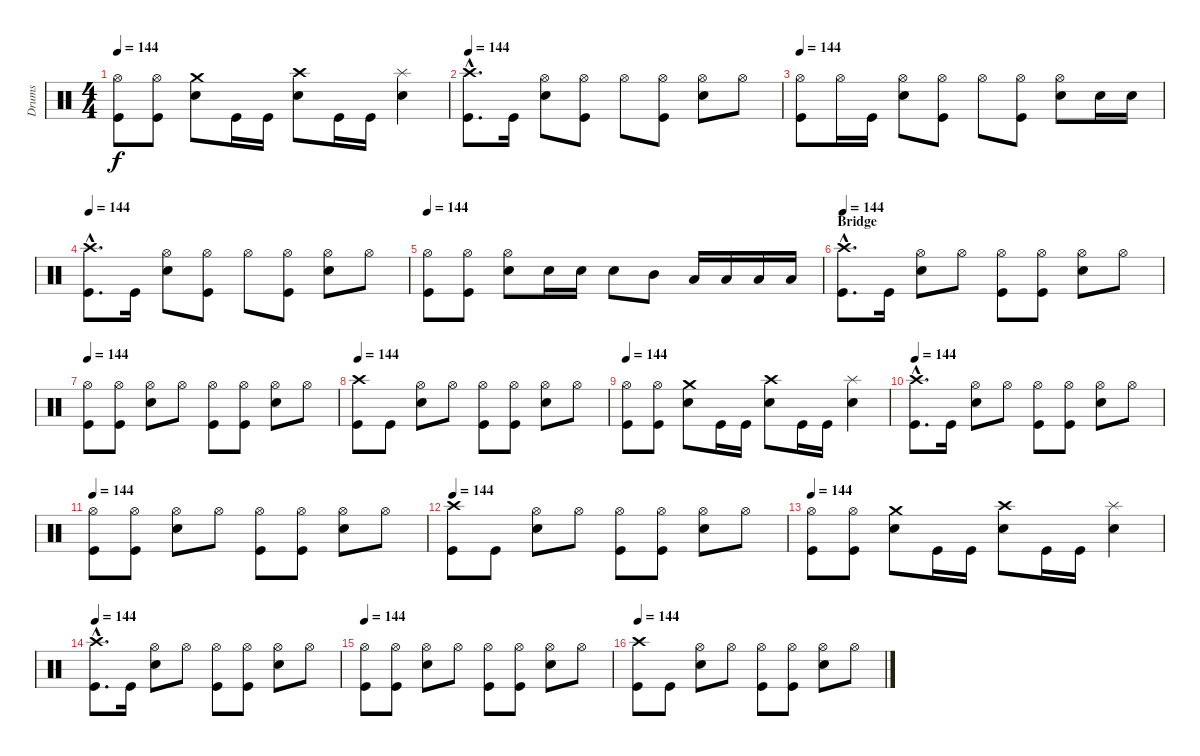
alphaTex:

\track ("Drums" "Drums") {instrument percussion}
\staff {score}
\articulation defaults
\ts (4 4)
\tempo 144
\clef neutral
\ks c
("Kick (hit)" "Hi-Hat (open)").8{dy f} ("Kick (hit)" "Hi-Hat (open)").8 ("Electric Snare (hit)" "Crash medium (hit)").8 "Kick (hit)".16 "Kick (hit)".16 ("Electric Snare (hit)" "Crash high (hit)").8 "Kick (hit)".16 "Kick (hit)".16 ("Electric Snare (hit)" "Splash (hit)").4 |
\tempo 144
("Kick (hit)"{hac} "Crash high (hit)"{hac}).8{d} "Kick (hit)".16 ("Electric Snare (hit)" "Hi-Hat (open)").8 ("Kick (hit)" "Hi-Hat (open)").8 "Hi-Hat (open)".8 ("Kick (hit)" "Hi-Hat (open)").8 ("Electric Snare (hit)" "Hi-Hat (open)").8 "Hi-Hat (open)".8 |
\tempo 144
("Kick (hit)" "Hi-Hat (open)").8 "Hi-Hat (open)".16 "Kick (hit)".16 ("Electric Snare (hit)" "Hi-Hat (open)").8 ("Kick (hit)" "Hi-Hat (open)").8 "Hi-Hat (open)".8 ("Kick (hit)" "Hi-Hat (open)").8 ("Electric Snare (hit)" "Hi-Hat (open)").8 "Electric Snare (hit)".16 "Electric Snare (hit)".16 |
\tempo 144
("Kick (hit)"{hac} "Crash high (hit)"{hac}).8{d} "Kick (hit)".16 ("Electric Snare (hit)" "Hi-Hat (open)").8 ("Kick (hit)" "Hi-Hat (open)").8 "Hi-Hat (open)".8 ("Kick (hit)" "Hi-Hat (open)").8 ("Electric Snare (hit)" "Hi-Hat (open)").8 "Hi-Hat (open)".8 |
\tempo 144
("Kick (hit)" "Hi-Hat (open)").8 ("Kick (hit)" "Hi-Hat (open)").8 ("Electric Snare (hit)" "Hi-Hat (open)").8 "Electric Snare (hit)".16 "Electric Snare (hit)".16 "Electric Snare (hit)".8 "Mid Tom (hit)".8 "Low Tom (hit)".16 "Low Tom (hit)".16 "Low Tom (hit)".16 "Low Tom (hit)".16 |
\section ("" "Bridge")
\tempo 144
("Kick (hit)"{hac} "Crash high (hit)"{hac}).8{d} "Kick (hit)".16 ("Electric Snare (hit)" "Hi-Hat (open)").8 "Hi-Hat (open)".8 ("Kick (hit)" "Hi-Hat (open)").8 ("Kick (hit)" "Hi-Hat (open)").8 ("Electric Snare (hit)" "Hi-Hat (open)").8 "Hi-Hat (open)".8 |
\tempo 144
("Kick (hit)" "Hi-Hat (open)").8 ("Kick (hit)" "Hi-Hat (open)").8 ("Electric Snare (hit)" "Hi-Hat (open)").8 "Hi-Hat (open)".8 ("Kick (hit)" "Hi-Hat (open)").8 ("Kick (hit)" "Hi-Hat (open)").8 ("Electric Snare (hit)" "Hi-Hat (open)").8 "Hi-Hat (open)".8 |
\tempo 144
("Kick (hit)" "Crash high (hit)").8 "Kick (hit)".8 ("Electric Snare (hit)" "Hi-Hat (open)").8 "Hi-Hat (open)".8 ("Kick (hit)" "Hi-Hat (open)").8 ("Kick (hit)" "Hi-Hat (open)").8 ("Electric Snare (hit)" "Hi-Hat (open)").8 "Hi-Hat (open)".8 |
\tempo 144
("Kick (hit)" "Hi-Hat (open)").8 ("Kick (hit)" "Hi-Hat (open)").8 ("Electric Snare (hit)" "Crash medium (hit)").8 "Kick (hit)".16 "Kick (hit)".16 ("Electric Snare (hit)" "Crash high (hit)").8 "Kick (hit)".16 "Kick (hit)".16 ("Electric Snare (hit)" "Splash (hit)").4 |
\tempo 144
("Kick (hit)"{hac} "Crash high (hit)"{hac}).8{d} "Kick (hit)".16 ("Electric Snare (hit)" "Hi-Hat (open)").8 "Hi-Hat (open)".8 ("Kick (hit)" "Hi-Hat (open)").8 ("Kick (hit)" "Hi-Hat (open)").8 ("Electric Snare (hit)" "Hi-Hat (open)").8 "Hi-Hat (open)".8 |
\tempo 144
("Kick (hit)" "Hi-Hat (open)").8 ("Kick (hit)" "Hi-Hat (open)").8 ("Electric Snare (hit)" "Hi-Hat (open)").8 "Hi-Hat (open)".8 ("Kick (hit)" "Hi-Hat (open)").8 ("Kick (hit)" "Hi-Hat (open)").8 ("Electric Snare (hit)" "Hi-Hat (open)").8 "Hi-Hat (open)".8 |
\tempo 144
("Kick (hit)" "Crash high (hit)").8 "Kick (hit)".8 ("Electric Snare (hit)" "Hi-Hat (open)").8 "Hi-Hat (open)".8 ("Kick (hit)" "Hi-Hat (open)").8 ("Kick (hit)" "Hi-Hat (open)").8 ("Electric Snare (hit)" "Hi-Hat (open)").8 "Hi-Hat (open)".8 |
\tempo 144
("Kick (hit)" "Hi-Hat (open)").8 ("Kick (hit)" "Hi-Hat (open)").8 ("Electric Snare (hit)" "Crash medium (hit)").8 "Kick (hit)".16 "Kick (hit)".16 ("Electric Snare (hit)" "Crash high (hit)").8 "Kick (hit)".16 "Kick (hit)".16 ("Electric Snare (hit)" "Splash (hit)").4 |
\tempo 144
("Kick (hit)"{hac} "Crash high (hit)"{hac}).8{d} "Kick (hit)".16 ("Electric Snare (hit)" "Hi-Hat (open)").8 "Hi-Hat (open)".8 ("Kick (hit)" "Hi-Hat (open)").8 ("Kick (hit)" "Hi-Hat (open)").8 ("Electric Snare (hit)" "Hi-Hat (open)").8 "Hi-Hat (open)".8 |
\tempo 144
("Kick (hit)" "Hi-Hat (open)").8 ("Kick (hit)" "Hi-Hat (open)").8 ("Electric Snare (hit)" "Hi-Hat (open)").8 "Hi-Hat (open)".8 ("Kick (hit)" "Hi-Hat (open)").8 ("Kick (hit)" "Hi-Hat (open)").8 ("Electric Snare (hit)" "Hi-Hat (open)").8 "Hi-Hat (open)".8 |
\tempo 144
("Kick (hit)" "Crash high (hit)").8 "Kick (hit)".8 ("Electric Snare (hit)" "Hi-Hat (open)").8 "Hi-Hat (open)".8 ("Kick (hit)" "Hi-Hat (open)").8 ("Kick (hit)" "Hi-Hat (open)").8 ("Electric Snare (hit)" "Hi-Hat (open)").8 "Hi-Hat (open)".8
